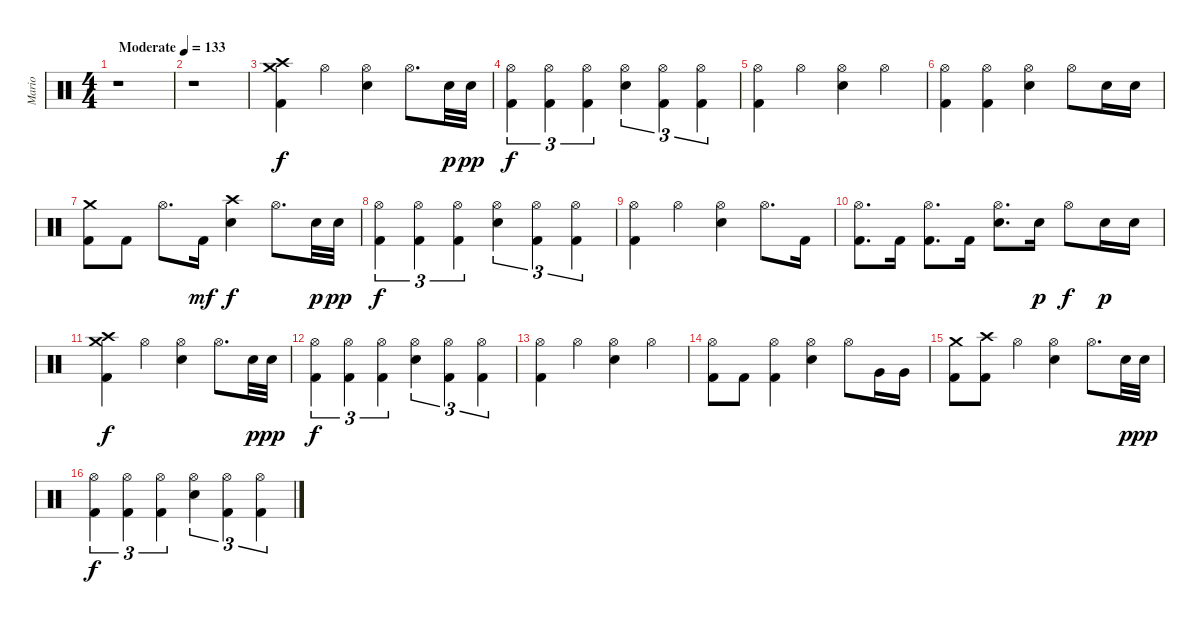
\track ("Mario" "Mario") {instrument percussion}
\staff {score}
\articulation defaults
\ts (4 4)
\tempo (133 "Moderate")
\clef neutral
\ks c
r.1{dy f} |
r.1 |
("Crash medium (hit)" "Crash high (hit)" "Kick (hit) 2").4 "Hi-Hat (open)".4 ("Hi-Hat (open)" "Electric Snare (hit)").4 "Hi-Hat (open)".8{d} "Electric Snare (hit)".32{dy p} "Electric Snare (hit)".32{dy pp} |
("Hi-Hat (open)" "Kick (hit) 2").4{tu (3 2) dy f} ("Hi-Hat (open)" "Kick (hit) 2").4{tu (3 2)} ("Hi-Hat (open)" "Kick (hit) 2").4{tu (3 2)} ("Hi-Hat (open)" "Electric Snare (hit)").4{tu (3 2)} ("Hi-Hat (open)" "Kick (hit) 2").4{tu (3 2)} ("Hi-Hat (open)" "Kick (hit) 2").4{tu (3 2)} |
("Hi-Hat (open)" "Kick (hit) 2").4 "Hi-Hat (open)".4 ("Hi-Hat (open)" "Electric Snare (hit)").4 "Hi-Hat (open)".4 |
("Hi-Hat (open)" "Kick (hit) 2").4 ("Hi-Hat (open)" "Kick (hit) 2").4 ("Hi-Hat (open)" "Electric Snare (hit)").4 "Hi-Hat (open)".8 "Electric Snare (hit)".16 "Electric Snare (hit)".16 |
("Crash medium (hit)" "Kick (hit) 2").8 "Kick (hit) 2".8 "Hi-Hat (open)".8{d} "Kick (hit) 2".16{dy mf} ("Crash high (hit)" "Electric Snare (hit)").4{dy f} "Hi-Hat (open)".8{d} "Electric Snare (hit)".32{dy p} "Electric Snare (hit)".32{dy pp} |
("Hi-Hat (open)" "Kick (hit) 2").4{tu (3 2) dy f} ("Hi-Hat (open)" "Kick (hit) 2").4{tu (3 2)} ("Hi-Hat (open)" "Kick (hit) 2").4{tu (3 2)} ("Hi-Hat (open)" "Electric Snare (hit)").4{tu (3 2)} ("Hi-Hat (open)" "Kick (hit) 2").4{tu (3 2)} ("Hi-Hat (open)" "Kick (hit) 2").4{tu (3 2)} |
("Hi-Hat (open)" "Kick (hit) 2").4 "Hi-Hat (open)".4 ("Hi-Hat (open)" "Electric Snare (hit)").4 "Hi-Hat (open)".8{d} "Kick (hit) 2".16 |
("Hi-Hat (open)" "Kick (hit) 2").8{d} "Kick (hit) 2".16 ("Hi-Hat (open)" "Kick (hit) 2").8{d} "Kick (hit) 2".16 ("Hi-Hat (open)" "Electric Snare (hit)").8{d} "Electric Snare (hit)".16{dy p} "Hi-Hat (open)".8{dy f} "Electric Snare (hit)".16{dy p} "Electric Snare (hit)".16 |
("Crash medium (hit)" "Crash high (hit)" "Kick (hit) 2").4{dy f} "Hi-Hat (open)".4 ("Hi-Hat (open)" "Electric Snare (hit)").4 "Hi-Hat (open)".8{d} "Electric Snare (hit)".32{dy p} "Electric Snare (hit)".32{dy pp} |
("Hi-Hat (open)" "Kick (hit) 2").4{tu (3 2) dy f} ("Hi-Hat (open)" "Kick (hit) 2").4{tu (3 2)} ("Hi-Hat (open)" "Kick (hit) 2").4{tu (3 2)} ("Hi-Hat (open)" "Electric Snare (hit)").4{tu (3 2)} ("Hi-Hat (open)" "Kick (hit) 2").4{tu (3 2)} ("Hi-Hat (open)" "Kick (hit) 2").4{tu (3 2)} |
("Hi-Hat (open)" "Kick (hit) 2").4 "Hi-Hat (open)".4 ("Hi-Hat (open)" "Electric Snare (hit)").4 "Hi-Hat (open)".4 |
("Hi-Hat (open)" "Kick (hit) 2").8 "Kick (hit) 2".8 ("Hi-Hat (open)" "Kick (hit) 2").4 ("Hi-Hat (open)" "Electric Snare (hit)").4 "Hi-Hat (open)".8 "Very Low Tom (hit)".16 "Very Low Tom (hit)".16 |
("Crash medium (hit)" "Kick (hit) 2").8 ("Crash high (hit)" "Kick (hit) 2").8 "Hi-Hat (open)".4 ("Hi-Hat (open)" "Electric Snare (hit)").4 "Hi-Hat (open)".8{d} "Electric Snare (hit)".32{dy p} "Electric Snare (hit)".32{dy pp} |
("Hi-Hat (open)" "Kick (hit) 2").4{tu (3 2) dy f} ("Hi-Hat (open)" "Kick (hit) 2").4{tu (3 2)} ("Hi-Hat (open)" "Kick (hit) 2").4{tu (3 2)} ("Hi-Hat (open)" "Electric Snare (hit)").4{tu (3 2)} ("Hi-Hat (open)" "Kick (hit) 2").4{tu (3 2)} ("Hi-Hat (open)" "Kick (hit) 2").4{tu (3 2)}
